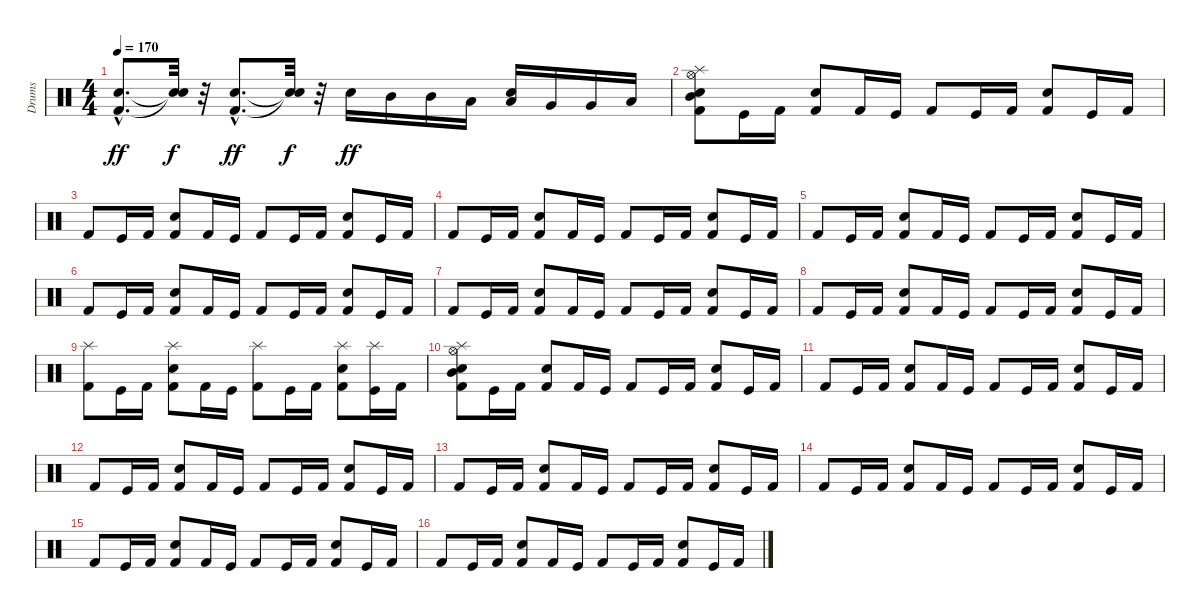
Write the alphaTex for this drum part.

\track ("Drums" "Drums") {instrument percussion}
\staff {score}
\articulation defaults
\ts (4 4)
\tempo 170
\clef neutral
\ks c
("Kick (hit) 2"{hac} "Electric Snare (hit)"{hac}).8{d dy ff} ("Snare (hit)"{t} "Snare (hit)"{t}).32{dy f} r.32 ("Kick (hit) 2"{hac} "Electric Snare (hit)"{hac}).8{d dy ff} ("Snare (hit)"{t} "Snare (hit)"{t}).32{dy f} r.32 "Electric Snare (hit)".16{dy ff} "Mid Tom (hit)".16 "Mid Tom (hit)".16 "Low Tom (hit)".16 ("Electric Snare (hit)" "Low Tom (hit)").16 "Very Low Tom (hit)".16 "Very Low Tom (hit)".16 "Low Floor Tom (hit)".16 |
("Kick (hit) 2" "Electric Snare (hit)" "Hi-Hat (open)" "Mid Tom (hit)" "Splash (hit)").8 "Kick (hit)".16 "Kick (hit) 2".16 ("Kick (hit) 2" "Electric Snare (hit)").8 "Kick (hit) 2".16 "Kick (hit)".16 "Kick (hit) 2".8 "Kick (hit)".16 "Kick (hit) 2".16 ("Kick (hit) 2" "Electric Snare (hit)").8 "Kick (hit)".16 "Kick (hit) 2".16 |
"Kick (hit) 2".8 "Kick (hit)".16 "Kick (hit) 2".16 ("Kick (hit) 2" "Electric Snare (hit)").8 "Kick (hit) 2".16 "Kick (hit)".16 "Kick (hit) 2".8 "Kick (hit)".16 "Kick (hit) 2".16 ("Kick (hit) 2" "Electric Snare (hit)").8 "Kick (hit)".16 "Kick (hit) 2".16 |
"Kick (hit) 2".8 "Kick (hit)".16 "Kick (hit) 2".16 ("Kick (hit) 2" "Electric Snare (hit)").8 "Kick (hit) 2".16 "Kick (hit)".16 "Kick (hit) 2".8 "Kick (hit)".16 "Kick (hit) 2".16 ("Kick (hit) 2" "Electric Snare (hit)").8 "Kick (hit)".16 "Kick (hit) 2".16 |
"Kick (hit) 2".8 "Kick (hit)".16 "Kick (hit) 2".16 ("Kick (hit) 2" "Electric Snare (hit)").8 "Kick (hit) 2".16 "Kick (hit)".16 "Kick (hit) 2".8 "Kick (hit)".16 "Kick (hit) 2".16 ("Kick (hit) 2" "Electric Snare (hit)").8 "Kick (hit)".16 "Kick (hit) 2".16 |
"Kick (hit) 2".8 "Kick (hit)".16 "Kick (hit) 2".16 ("Kick (hit) 2" "Electric Snare (hit)").8 "Kick (hit) 2".16 "Kick (hit)".16 "Kick (hit) 2".8 "Kick (hit)".16 "Kick (hit) 2".16 ("Kick (hit) 2" "Electric Snare (hit)").8 "Kick (hit)".16 "Kick (hit) 2".16 |
"Kick (hit) 2".8 "Kick (hit)".16 "Kick (hit) 2".16 ("Kick (hit) 2" "Electric Snare (hit)").8 "Kick (hit) 2".16 "Kick (hit)".16 "Kick (hit) 2".8 "Kick (hit)".16 "Kick (hit) 2".16 ("Kick (hit) 2" "Electric Snare (hit)").8 "Kick (hit)".16 "Kick (hit) 2".16 |
"Kick (hit) 2".8 "Kick (hit)".16 "Kick (hit) 2".16 ("Kick (hit) 2" "Electric Snare (hit)").8 "Kick (hit) 2".16 "Kick (hit)".16 "Kick (hit) 2".8 "Kick (hit)".16 "Kick (hit) 2".16 ("Kick (hit) 2" "Electric Snare (hit)").8 "Kick (hit)".16 "Kick (hit) 2".16 |
("Kick (hit) 2" "Splash (hit)").8 "Kick (hit)".16 "Kick (hit) 2".16 ("Kick (hit) 2" "Electric Snare (hit)" "Splash (hit)").8 "Kick (hit) 2".16 "Kick (hit)".16 ("Kick (hit) 2" "Splash (hit)").8 "Kick (hit)".16 "Kick (hit) 2".16 ("Kick (hit) 2" "Electric Snare (hit)" "Splash (hit)").8 ("Kick (hit)" "Splash (hit)").16 "Kick (hit) 2".16 |
("Kick (hit) 2" "Electric Snare (hit)" "Hi-Hat (open)" "Mid Tom (hit)" "Splash (hit)").8 "Kick (hit)".16 "Kick (hit) 2".16 ("Kick (hit) 2" "Electric Snare (hit)").8 "Kick (hit) 2".16 "Kick (hit)".16 "Kick (hit) 2".8 "Kick (hit)".16 "Kick (hit) 2".16 ("Kick (hit) 2" "Electric Snare (hit)").8 "Kick (hit)".16 "Kick (hit) 2".16 |
"Kick (hit) 2".8 "Kick (hit)".16 "Kick (hit) 2".16 ("Kick (hit) 2" "Electric Snare (hit)").8 "Kick (hit) 2".16 "Kick (hit)".16 "Kick (hit) 2".8 "Kick (hit)".16 "Kick (hit) 2".16 ("Kick (hit) 2" "Electric Snare (hit)").8 "Kick (hit)".16 "Kick (hit) 2".16 |
"Kick (hit) 2".8 "Kick (hit)".16 "Kick (hit) 2".16 ("Kick (hit) 2" "Electric Snare (hit)").8 "Kick (hit) 2".16 "Kick (hit)".16 "Kick (hit) 2".8 "Kick (hit)".16 "Kick (hit) 2".16 ("Kick (hit) 2" "Electric Snare (hit)").8 "Kick (hit)".16 "Kick (hit) 2".16 |
"Kick (hit) 2".8 "Kick (hit)".16 "Kick (hit) 2".16 ("Kick (hit) 2" "Electric Snare (hit)").8 "Kick (hit) 2".16 "Kick (hit)".16 "Kick (hit) 2".8 "Kick (hit)".16 "Kick (hit) 2".16 ("Kick (hit) 2" "Electric Snare (hit)").8 "Kick (hit)".16 "Kick (hit) 2".16 |
"Kick (hit) 2".8 "Kick (hit)".16 "Kick (hit) 2".16 ("Kick (hit) 2" "Electric Snare (hit)").8 "Kick (hit) 2".16 "Kick (hit)".16 "Kick (hit) 2".8 "Kick (hit)".16 "Kick (hit) 2".16 ("Kick (hit) 2" "Electric Snare (hit)").8 "Kick (hit)".16 "Kick (hit) 2".16 |
"Kick (hit) 2".8 "Kick (hit)".16 "Kick (hit) 2".16 ("Kick (hit) 2" "Electric Snare (hit)").8 "Kick (hit) 2".16 "Kick (hit)".16 "Kick (hit) 2".8 "Kick (hit)".16 "Kick (hit) 2".16 ("Kick (hit) 2" "Electric Snare (hit)").8 "Kick (hit)".16 "Kick (hit) 2".16 |
"Kick (hit) 2".8 "Kick (hit)".16 "Kick (hit) 2".16 ("Kick (hit) 2" "Electric Snare (hit)").8 "Kick (hit) 2".16 "Kick (hit)".16 "Kick (hit) 2".8 "Kick (hit)".16 "Kick (hit) 2".16 ("Kick (hit) 2" "Electric Snare (hit)").8 "Kick (hit)".16 "Kick (hit) 2".16
